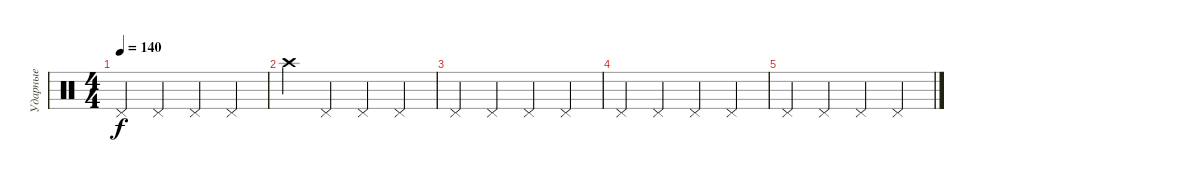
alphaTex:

\track ("Ударные" "Ударные") {instrument percussion}
\staff {score}
\articulation defaults
\ts (4 4)
\tempo 140
\clef neutral
\ks c "Pedal Hi-Hat (hit)".4{dy f} "Pedal Hi-Hat (hit)".4 "Pedal Hi-Hat (hit)".4 "Pedal Hi-Hat (hit)".4
|
"Crash high (hit)".4 "Pedal Hi-Hat (hit)".4 "Pedal Hi-Hat (hit)".4 "Pedal Hi-Hat (hit)".4 |
"Pedal Hi-Hat (hit)".4 "Pedal Hi-Hat (hit)".4 "Pedal Hi-Hat (hit)".4 "Pedal Hi-Hat (hit)".4 |
"Pedal Hi-Hat (hit)".4 "Pedal Hi-Hat (hit)".4 "Pedal Hi-Hat (hit)".4 "Pedal Hi-Hat (hit)".4 |
"Pedal Hi-Hat (hit)".4 "Pedal Hi-Hat (hit)".4 "Pedal Hi-Hat (hit)".4 "Pedal Hi-Hat (hit)".4
